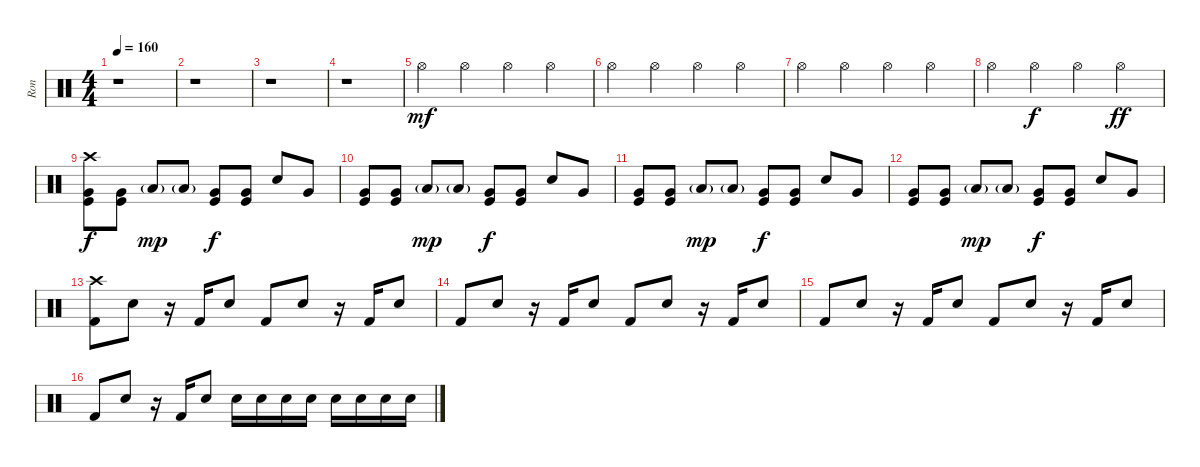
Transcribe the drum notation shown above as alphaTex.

\track ("Ron" "Ron") {instrument percussion}
\staff {score}
\articulation defaults
\ts (4 4)
\tempo 160
\clef neutral
\ks c
r.1{dy mf} |
r.1 |
r.1 |
r.1 |
"Hi-Hat (open)".4 "Hi-Hat (open)".4 "Hi-Hat (open)".4 "Hi-Hat (open)".4 |
"Hi-Hat (open)".4 "Hi-Hat (open)".4 "Hi-Hat (open)".4 "Hi-Hat (open)".4 |
"Hi-Hat (open)".4 "Hi-Hat (open)".4 "Hi-Hat (open)".4 "Hi-Hat (open)".4 |
"Hi-Hat (open)".4 "Hi-Hat (open)".4{dy f} "Hi-Hat (open)".4 "Hi-Hat (open)".4{dy ff} |
("Crash high (hit)" "Very Low Tom (hit)" "Kick (hit)").8{dy f} ("Very Low Tom (hit)" "Kick (hit)").8 "Low Floor Tom (hit)"{g}.8{dy mp} "Low Floor Tom (hit)"{g}.8 ("Very Low Tom (hit)" "Kick (hit)").8{dy f} ("Very Low Tom (hit)" "Kick (hit)").8 "Electric Snare (hit)".8 "Very Low Tom (hit)".8 |
("Very Low Tom (hit)" "Kick (hit)").8 ("Very Low Tom (hit)" "Kick (hit)").8 "Low Floor Tom (hit)"{g}.8{dy mp} "Low Floor Tom (hit)"{g}.8 ("Very Low Tom (hit)" "Kick (hit)").8{dy f} ("Very Low Tom (hit)" "Kick (hit)").8 "Electric Snare (hit)".8 "Very Low Tom (hit)".8 |
("Very Low Tom (hit)" "Kick (hit)").8 ("Very Low Tom (hit)" "Kick (hit)").8 "Low Floor Tom (hit)"{g}.8{dy mp} "Low Floor Tom (hit)"{g}.8 ("Very Low Tom (hit)" "Kick (hit)").8{dy f} ("Very Low Tom (hit)" "Kick (hit)").8 "Electric Snare (hit)".8 "Very Low Tom (hit)".8 |
("Very Low Tom (hit)" "Kick (hit)").8 ("Very Low Tom (hit)" "Kick (hit)").8 "Low Floor Tom (hit)"{g}.8{dy mp} "Low Floor Tom (hit)"{g}.8 ("Very Low Tom (hit)" "Kick (hit)").8{dy f} ("Very Low Tom (hit)" "Kick (hit)").8 "Electric Snare (hit)".8 "Very Low Tom (hit)".8 |
("Crash high (hit)" "Kick (hit) 2").8 "Electric Snare (hit)".8 r.16 "Kick (hit) 2".16 "Electric Snare (hit)".8 "Kick (hit) 2".8 "Electric Snare (hit)".8 r.16 "Kick (hit) 2".16 "Electric Snare (hit)".8 |
"Kick (hit) 2".8 "Electric Snare (hit)".8 r.16 "Kick (hit) 2".16 "Electric Snare (hit)".8 "Kick (hit) 2".8 "Electric Snare (hit)".8 r.16 "Kick (hit) 2".16 "Electric Snare (hit)".8 |
"Kick (hit) 2".8 "Electric Snare (hit)".8 r.16 "Kick (hit) 2".16 "Electric Snare (hit)".8 "Kick (hit) 2".8 "Electric Snare (hit)".8 r.16 "Kick (hit) 2".16 "Electric Snare (hit)".8 |
"Kick (hit) 2".8 "Electric Snare (hit)".8 r.16 "Kick (hit) 2".16 "Electric Snare (hit)".8 "Electric Snare (hit)".16 "Electric Snare (hit)".16 "Electric Snare (hit)".16 "Electric Snare (hit)".16 "Electric Snare (hit)".16 "Electric Snare (hit)".16 "Electric Snare (hit)".16 "Electric Snare (hit)".16
